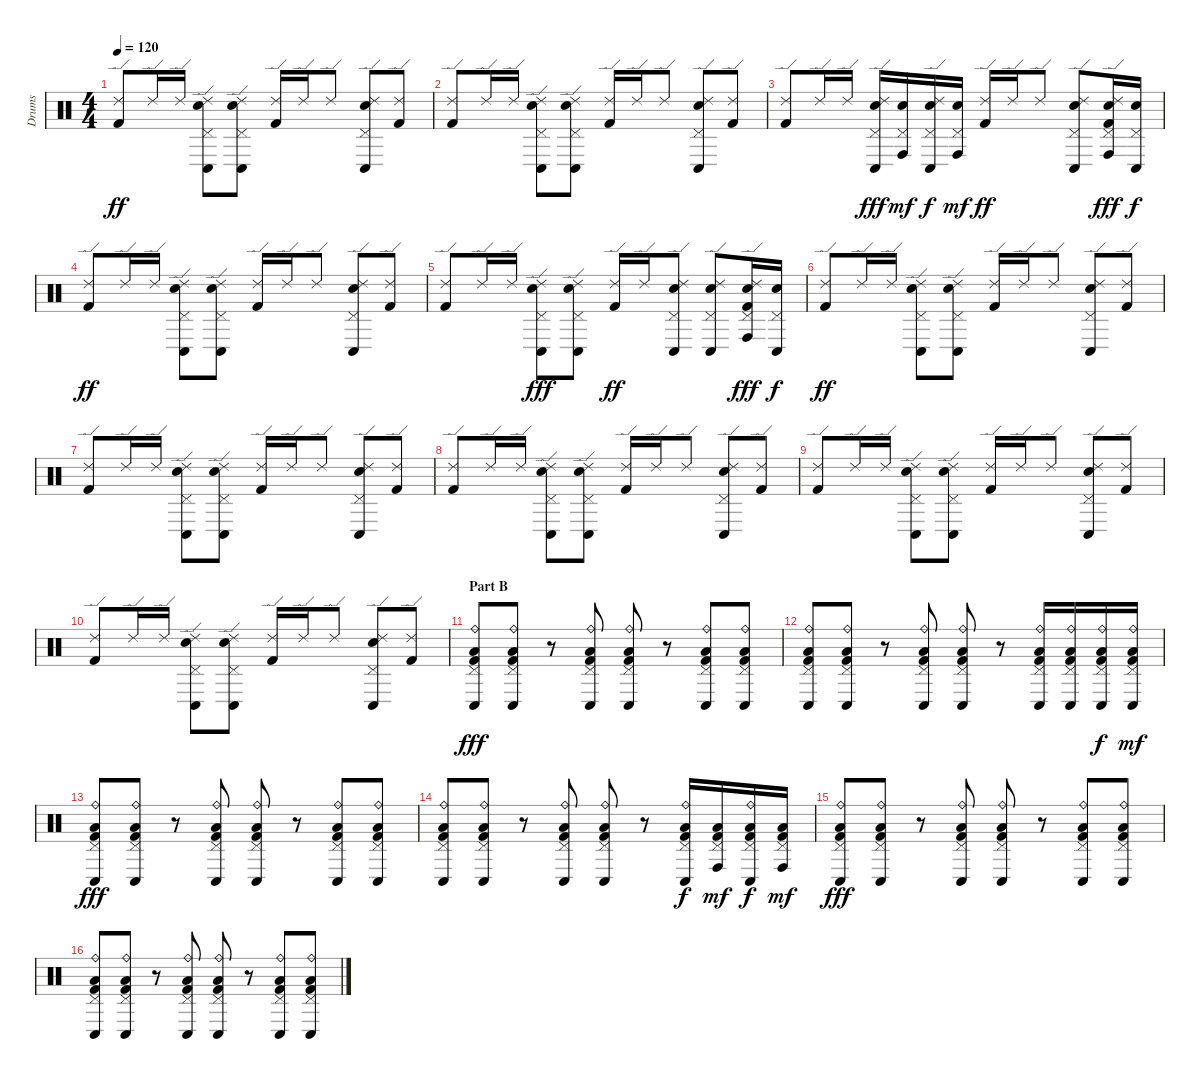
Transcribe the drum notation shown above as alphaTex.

\track ("Drums" "Drums") {instrument percussion}
\staff {score}
\articulation defaults
\ts (4 4)
\tempo 120
\clef neutral
\ks c
("Ride (edge) 2" "Kick (hit) 2").8{dy ff} "Ride (edge) 2".16 "Ride (edge) 2".16 ("Ride (edge) 2" "Pedal Hi-Hat (hit)" "Conga low (hit)" "Electric Snare (hit)").8 ("Ride (edge) 2" "Pedal Hi-Hat (hit)" "Conga low (hit)" "Electric Snare (hit)").8 ("Ride (edge) 2" "Kick (hit) 2").16 "Ride (edge) 2".16 "Ride (edge) 2".8 ("Ride (edge) 2" "Pedal Hi-Hat (hit)" "Conga low (hit)" "Electric Snare (hit)").8 ("Ride (edge) 2" "Kick (hit) 2").8 |
("Ride (edge) 2" "Kick (hit) 2").8 "Ride (edge) 2".16 "Ride (edge) 2".16 ("Ride (edge) 2" "Pedal Hi-Hat (hit)" "Conga low (hit)" "Electric Snare (hit)").8 ("Ride (edge) 2" "Pedal Hi-Hat (hit)" "Conga low (hit)" "Electric Snare (hit)").8 ("Ride (edge) 2" "Kick (hit) 2").16 "Ride (edge) 2".16 "Ride (edge) 2".8 ("Ride (edge) 2" "Pedal Hi-Hat (hit)" "Conga low (hit)" "Electric Snare (hit)").8 ("Ride (edge) 2" "Kick (hit) 2").8 |
("Ride (edge) 2" "Kick (hit) 2").8 "Ride (edge) 2".16 "Ride (edge) 2".16 ("Ride (edge) 2" "Pedal Hi-Hat (hit)" "Conga low (hit)" "Electric Snare (hit)").16{dy fff} ("Pedal Hi-Hat (hit)" "Conga high (hit)" "Electric Snare (hit)").16{dy mf} ("Ride (edge) 2" "Pedal Hi-Hat (hit)" "Conga low (hit)" "Electric Snare (hit)").16{dy f} ("Pedal Hi-Hat (hit)" "Conga high (hit)" "Electric Snare (hit)").16{dy mf} ("Ride (edge) 2" "Kick (hit) 2").16{dy ff} "Ride (edge) 2".16 "Ride (edge) 2".8 ("Ride (edge) 2" "Pedal Hi-Hat (hit)" "Conga low (hit)" "Electric Snare (hit)").8 ("Ride (edge) 2" "Pedal Hi-Hat (hit)" "Conga high (hit)" "Electric Snare (hit)" "Kick (hit) 2").16{dy fff} ("Pedal Hi-Hat (hit)" "Conga low (hit)" "Electric Snare (hit)").16{dy f} |
("Ride (edge) 2" "Kick (hit) 2").8{dy ff} "Ride (edge) 2".16 "Ride (edge) 2".16 ("Ride (edge) 2" "Pedal Hi-Hat (hit)" "Conga low (hit)" "Electric Snare (hit)").8 ("Ride (edge) 2" "Pedal Hi-Hat (hit)" "Conga low (hit)" "Electric Snare (hit)").8 ("Ride (edge) 2" "Kick (hit) 2").16 "Ride (edge) 2".16 "Ride (edge) 2".8 ("Ride (edge) 2" "Pedal Hi-Hat (hit)" "Conga low (hit)" "Electric Snare (hit)").8 ("Ride (edge) 2" "Kick (hit) 2").8 |
("Ride (edge) 2" "Kick (hit) 2").8 "Ride (edge) 2".16 "Ride (edge) 2".16 ("Ride (edge) 2" "Pedal Hi-Hat (hit)" "Conga low (hit)" "Electric Snare (hit)").8{dy fff} ("Ride (edge) 2" "Pedal Hi-Hat (hit)" "Conga low (hit)" "Electric Snare (hit)").8 ("Ride (edge) 2" "Kick (hit) 2").16{dy ff} "Ride (edge) 2".16 ("Ride (edge) 2" "Pedal Hi-Hat (hit)" "Conga low (hit)" "Electric Snare (hit)").8 ("Ride (edge) 2" "Pedal Hi-Hat (hit)" "Conga low (hit)" "Electric Snare (hit)").8 ("Ride (edge) 2" "Pedal Hi-Hat (hit)" "Conga high (hit)" "Electric Snare (hit)" "Kick (hit) 2").16{dy fff} ("Pedal Hi-Hat (hit)" "Conga low (hit)" "Electric Snare (hit)").16{dy f} |
("Ride (edge) 2" "Kick (hit) 2").8{dy ff} "Ride (edge) 2".16 "Ride (edge) 2".16 ("Ride (edge) 2" "Pedal Hi-Hat (hit)" "Conga low (hit)" "Electric Snare (hit)").8 ("Ride (edge) 2" "Pedal Hi-Hat (hit)" "Conga low (hit)" "Electric Snare (hit)").8 ("Ride (edge) 2" "Kick (hit) 2").16 "Ride (edge) 2".16 "Ride (edge) 2".8 ("Ride (edge) 2" "Pedal Hi-Hat (hit)" "Conga low (hit)" "Electric Snare (hit)").8 ("Ride (edge) 2" "Kick (hit) 2").8 |
("Ride (edge) 2" "Kick (hit) 2").8 "Ride (edge) 2".16 "Ride (edge) 2".16 ("Ride (edge) 2" "Pedal Hi-Hat (hit)" "Conga low (hit)" "Electric Snare (hit)").8 ("Ride (edge) 2" "Pedal Hi-Hat (hit)" "Conga low (hit)" "Electric Snare (hit)").8 ("Ride (edge) 2" "Kick (hit) 2").16 "Ride (edge) 2".16 "Ride (edge) 2".8 ("Ride (edge) 2" "Pedal Hi-Hat (hit)" "Conga low (hit)" "Electric Snare (hit)").8 ("Ride (edge) 2" "Kick (hit) 2").8 |
("Ride (edge) 2" "Kick (hit) 2").8 "Ride (edge) 2".16 "Ride (edge) 2".16 ("Ride (edge) 2" "Pedal Hi-Hat (hit)" "Conga low (hit)" "Electric Snare (hit)").8 ("Ride (edge) 2" "Pedal Hi-Hat (hit)" "Conga low (hit)" "Electric Snare (hit)").8 ("Ride (edge) 2" "Kick (hit) 2").16 "Ride (edge) 2".16 "Ride (edge) 2".8 ("Ride (edge) 2" "Pedal Hi-Hat (hit)" "Conga low (hit)" "Electric Snare (hit)").8 ("Ride (edge) 2" "Kick (hit) 2").8 |
("Ride (edge) 2" "Kick (hit) 2").8 "Ride (edge) 2".16 "Ride (edge) 2".16 ("Ride (edge) 2" "Pedal Hi-Hat (hit)" "Conga low (hit)" "Electric Snare (hit)").8 ("Ride (edge) 2" "Pedal Hi-Hat (hit)" "Conga low (hit)" "Electric Snare (hit)").8 ("Ride (edge) 2" "Kick (hit) 2").16 "Ride (edge) 2".16 "Ride (edge) 2".8 ("Ride (edge) 2" "Pedal Hi-Hat (hit)" "Conga low (hit)" "Electric Snare (hit)").8 ("Ride (edge) 2" "Kick (hit) 2").8 |
("Ride (edge) 2" "Kick (hit) 2").8 "Ride (edge) 2".16 "Ride (edge) 2".16 ("Ride (edge) 2" "Pedal Hi-Hat (hit)" "Conga low (hit)" "Electric Snare (hit)").8 ("Ride (edge) 2" "Pedal Hi-Hat (hit)" "Conga low (hit)" "Electric Snare (hit)").8 ("Ride (edge) 2" "Kick (hit) 2").16 "Ride (edge) 2".16 "Ride (edge) 2".8 ("Ride (edge) 2" "Pedal Hi-Hat (hit)" "Conga low (hit)" "Electric Snare (hit)").8 ("Ride (edge) 2" "Kick (hit) 2").8 |
\section ("" "Part B")
("Ride (bell)" "Pedal Hi-Hat (hit)" "Conga low (hit)" "Low Floor Tom (hit)" "Kick (hit) 2").8{dy fff} ("Ride (bell)" "Pedal Hi-Hat (hit)" "Conga low (hit)" "Low Floor Tom (hit)" "Kick (hit) 2").8 r.8 ("Ride (bell)" "Pedal Hi-Hat (hit)" "Conga low (hit)" "Low Floor Tom (hit)" "Kick (hit) 2").8 ("Ride (bell)" "Pedal Hi-Hat (hit)" "Conga low (hit)" "Low Floor Tom (hit)" "Kick (hit) 2").8 r.8 ("Ride (bell)" "Pedal Hi-Hat (hit)" "Conga low (hit)" "Low Floor Tom (hit)" "Kick (hit) 2").8 ("Ride (bell)" "Pedal Hi-Hat (hit)" "Conga low (hit)" "Low Floor Tom (hit)" "Kick (hit) 2").8 |
("Ride (bell)" "Pedal Hi-Hat (hit)" "Conga low (hit)" "Low Floor Tom (hit)" "Kick (hit) 2").8 ("Ride (bell)" "Pedal Hi-Hat (hit)" "Conga low (hit)" "Low Floor Tom (hit)" "Kick (hit) 2").8 r.8 ("Ride (bell)" "Pedal Hi-Hat (hit)" "Conga low (hit)" "Low Floor Tom (hit)" "Kick (hit) 2").8 ("Ride (bell)" "Pedal Hi-Hat (hit)" "Conga low (hit)" "Low Floor Tom (hit)" "Kick (hit) 2").8 r.8 ("Ride (bell)" "Pedal Hi-Hat (hit)" "Conga low (hit)" "Low Floor Tom (hit)" "Kick (hit) 2").16 ("Ride (bell)" "Pedal Hi-Hat (hit)" "Conga low (hit)" "Low Floor Tom (hit)" "Kick (hit) 2").16 ("Ride (bell)" "Pedal Hi-Hat (hit)" "Conga low (hit)" "Low Floor Tom (hit)" "Kick (hit) 2").16{dy f} ("Ride (bell)" "Pedal Hi-Hat (hit)" "Conga low (hit)" "Low Floor Tom (hit)" "Kick (hit) 2").16{dy mf} |
("Ride (bell)" "Pedal Hi-Hat (hit)" "Conga low (hit)" "Low Floor Tom (hit)" "Kick (hit) 2").8{dy fff} ("Ride (bell)" "Pedal Hi-Hat (hit)" "Conga low (hit)" "Low Floor Tom (hit)" "Kick (hit) 2").8 r.8 ("Ride (bell)" "Pedal Hi-Hat (hit)" "Conga low (hit)" "Low Floor Tom (hit)" "Kick (hit) 2").8 ("Ride (bell)" "Pedal Hi-Hat (hit)" "Conga low (hit)" "Low Floor Tom (hit)" "Kick (hit) 2").8 r.8 ("Ride (bell)" "Pedal Hi-Hat (hit)" "Conga low (hit)" "Low Floor Tom (hit)" "Kick (hit) 2").8 ("Ride (bell)" "Pedal Hi-Hat (hit)" "Conga low (hit)" "Low Floor Tom (hit)" "Kick (hit) 2").8 |
("Ride (bell)" "Pedal Hi-Hat (hit)" "Conga low (hit)" "Low Floor Tom (hit)" "Kick (hit) 2").8 ("Ride (bell)" "Pedal Hi-Hat (hit)" "Conga low (hit)" "Low Floor Tom (hit)" "Kick (hit) 2").8 r.8 ("Ride (bell)" "Pedal Hi-Hat (hit)" "Conga low (hit)" "Low Floor Tom (hit)" "Kick (hit) 2").8 ("Ride (bell)" "Pedal Hi-Hat (hit)" "Conga low (hit)" "Low Floor Tom (hit)" "Kick (hit) 2").8 r.8 ("Ride (bell)" "Pedal Hi-Hat (hit)" "Conga low (hit)" "Low Floor Tom (hit)" "Kick (hit) 2").16{dy f} ("Pedal Hi-Hat (hit)" "Conga high (hit)" "Low Floor Tom (hit)" "Kick (hit) 2").16{dy mf} ("Ride (bell)" "Pedal Hi-Hat (hit)" "Conga low (hit)" "Low Floor Tom (hit)" "Kick (hit) 2").16{dy f} ("Pedal Hi-Hat (hit)" "Conga high (hit)" "Low Floor Tom (hit)" "Kick (hit) 2").16{dy mf} |
("Ride (bell)" "Pedal Hi-Hat (hit)" "Conga low (hit)" "Low Floor Tom (hit)" "Kick (hit) 2").8{dy fff} ("Ride (bell)" "Pedal Hi-Hat (hit)" "Conga low (hit)" "Low Floor Tom (hit)" "Kick (hit) 2").8 r.8 ("Ride (bell)" "Pedal Hi-Hat (hit)" "Conga low (hit)" "Low Floor Tom (hit)" "Kick (hit) 2").8 ("Ride (bell)" "Pedal Hi-Hat (hit)" "Conga low (hit)" "Low Floor Tom (hit)" "Kick (hit) 2").8 r.8 ("Ride (bell)" "Pedal Hi-Hat (hit)" "Conga low (hit)" "Low Floor Tom (hit)" "Kick (hit) 2").8 ("Ride (bell)" "Pedal Hi-Hat (hit)" "Conga low (hit)" "Low Floor Tom (hit)" "Kick (hit) 2").8 |
("Ride (bell)" "Pedal Hi-Hat (hit)" "Conga low (hit)" "Low Floor Tom (hit)" "Kick (hit) 2").8 ("Ride (bell)" "Pedal Hi-Hat (hit)" "Conga low (hit)" "Low Floor Tom (hit)" "Kick (hit) 2").8 r.8 ("Ride (bell)" "Pedal Hi-Hat (hit)" "Conga low (hit)" "Low Floor Tom (hit)" "Kick (hit) 2").8 ("Ride (bell)" "Pedal Hi-Hat (hit)" "Conga low (hit)" "Low Floor Tom (hit)" "Kick (hit) 2").8 r.8 ("Ride (bell)" "Pedal Hi-Hat (hit)" "Conga low (hit)" "Low Floor Tom (hit)" "Kick (hit) 2").8 ("Ride (bell)" "Pedal Hi-Hat (hit)" "Conga low (hit)" "Low Floor Tom (hit)" "Kick (hit) 2").8
